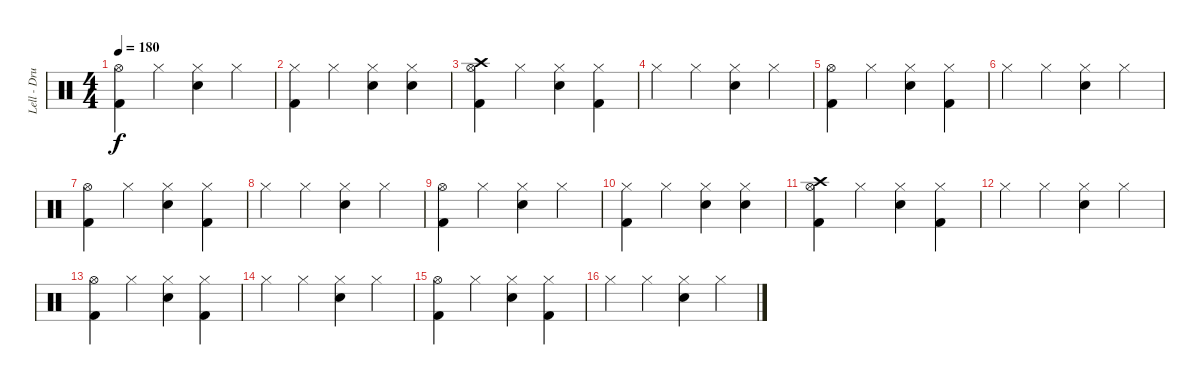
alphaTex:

\track ("Lell - Drums" "Lell - Dru") {instrument percussion}
\staff {score}
\articulation defaults
\ts (4 4)
\tempo 180
\clef neutral
\ks c
("Hi-Hat (open)" "Kick (hit) 2").4{dy f} "Hi-Hat (closed)".4 ("Hi-Hat (closed)" "Snare (hit) 2").4 "Hi-Hat (closed)".4 |
("Hi-Hat (closed)" "Kick (hit) 2").4 "Hi-Hat (closed)".4 ("Hi-Hat (closed)" "Snare (hit) 2").4 ("Hi-Hat (closed)" "Snare (hit) 2").4 |
("Crash high (hit)" "Hi-Hat (open)" "Kick (hit) 2").4 "Hi-Hat (closed)".4 ("Hi-Hat (closed)" "Snare (hit) 2").4 ("Hi-Hat (closed)" "Kick (hit) 2").4 |
"Hi-Hat (closed)".4 "Hi-Hat (closed)".4 ("Hi-Hat (closed)" "Snare (hit) 2").4 "Hi-Hat (closed)".4 |
("Hi-Hat (open)" "Kick (hit) 2").4 "Hi-Hat (closed)".4 ("Hi-Hat (closed)" "Snare (hit) 2").4 ("Hi-Hat (closed)" "Kick (hit) 2").4 |
"Hi-Hat (closed)".4 "Hi-Hat (closed)".4 ("Hi-Hat (closed)" "Snare (hit) 2").4 "Hi-Hat (closed)".4 |
("Hi-Hat (open)" "Kick (hit) 2").4 "Hi-Hat (closed)".4 ("Hi-Hat (closed)" "Snare (hit) 2").4 ("Hi-Hat (closed)" "Kick (hit) 2").4 |
"Hi-Hat (closed)".4 "Hi-Hat (closed)".4 ("Hi-Hat (closed)" "Snare (hit) 2").4 "Hi-Hat (closed)".4 |
("Hi-Hat (open)" "Kick (hit) 2").4 "Hi-Hat (closed)".4 ("Hi-Hat (closed)" "Snare (hit) 2").4 "Hi-Hat (closed)".4 |
("Hi-Hat (closed)" "Kick (hit) 2").4 "Hi-Hat (closed)".4 ("Hi-Hat (closed)" "Snare (hit) 2").4 ("Hi-Hat (closed)" "Snare (hit) 2").4 |
("Crash high (hit)" "Hi-Hat (open)" "Kick (hit) 2").4 "Hi-Hat (closed)".4 ("Hi-Hat (closed)" "Snare (hit) 2").4 ("Hi-Hat (closed)" "Kick (hit) 2").4 |
"Hi-Hat (closed)".4 "Hi-Hat (closed)".4 ("Hi-Hat (closed)" "Snare (hit) 2").4 "Hi-Hat (closed)".4 |
("Hi-Hat (open)" "Kick (hit) 2").4 "Hi-Hat (closed)".4 ("Hi-Hat (closed)" "Snare (hit) 2").4 ("Hi-Hat (closed)" "Kick (hit) 2").4 |
"Hi-Hat (closed)".4 "Hi-Hat (closed)".4 ("Hi-Hat (closed)" "Snare (hit) 2").4 "Hi-Hat (closed)".4 |
("Hi-Hat (open)" "Kick (hit) 2").4 "Hi-Hat (closed)".4 ("Hi-Hat (closed)" "Snare (hit) 2").4 ("Hi-Hat (closed)" "Kick (hit) 2").4 |
"Hi-Hat (closed)".4 "Hi-Hat (closed)".4 ("Hi-Hat (closed)" "Snare (hit) 2").4 "Hi-Hat (closed)".4
